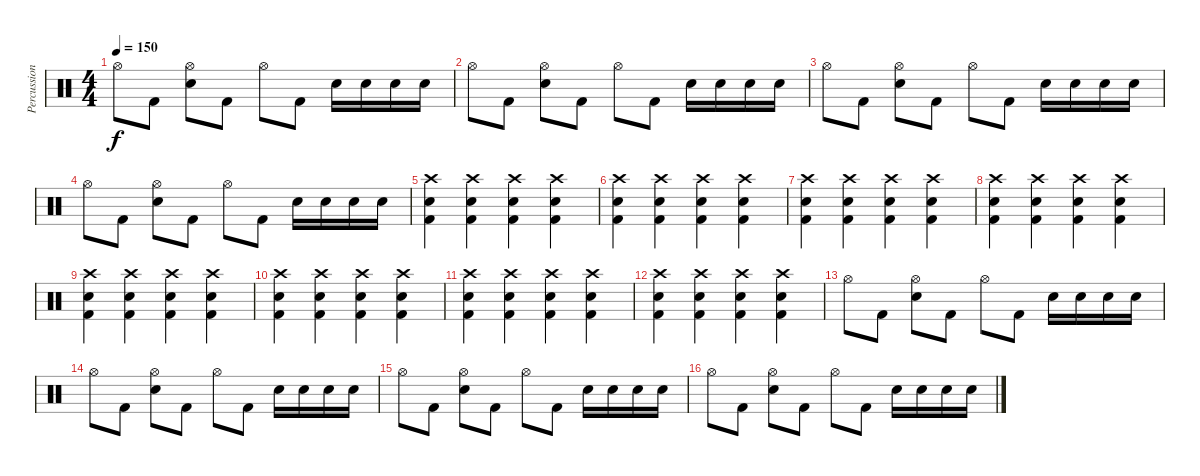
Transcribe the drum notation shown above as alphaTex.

\track ("Percussion" "Percussion") {instrument percussion}
\staff {score}
\articulation defaults
\ts (4 4)
\tempo 150
\clef neutral
\ks c "Hi-Hat (open)".8{dy f} "Kick (hit) 2".8
("Hi-Hat (open)" "Electric Snare (hit)").8 "Kick (hit) 2".8 "Hi-Hat (open)".8 "Kick (hit) 2".8 "Electric Snare (hit)".16 "Electric Snare (hit)".16 "Electric Snare (hit)".16 "Electric Snare (hit)".16 |
"Hi-Hat (open)".8 "Kick (hit) 2".8 ("Hi-Hat (open)" "Electric Snare (hit)").8 "Kick (hit) 2".8 "Hi-Hat (open)".8 "Kick (hit) 2".8 "Electric Snare (hit)".16 "Electric Snare (hit)".16 "Electric Snare (hit)".16 "Electric Snare (hit)".16 |
"Hi-Hat (open)".8 "Kick (hit) 2".8 ("Hi-Hat (open)" "Electric Snare (hit)").8 "Kick (hit) 2".8 "Hi-Hat (open)".8 "Kick (hit) 2".8 "Electric Snare (hit)".16 "Electric Snare (hit)".16 "Electric Snare (hit)".16 "Electric Snare (hit)".16 |
"Hi-Hat (open)".8 "Kick (hit) 2".8 ("Hi-Hat (open)" "Electric Snare (hit)").8 "Kick (hit) 2".8 "Hi-Hat (open)".8 "Kick (hit) 2".8 "Electric Snare (hit)".16 "Electric Snare (hit)".16 "Electric Snare (hit)".16 "Electric Snare (hit)".16 |
("Crash high (hit)" "Electric Snare (hit)" "Kick (hit) 2").4 ("Crash high (hit)" "Electric Snare (hit)" "Kick (hit) 2").4 ("Crash high (hit)" "Electric Snare (hit)" "Kick (hit) 2").4 ("Crash high (hit)" "Electric Snare (hit)" "Kick (hit) 2").4 |
("Crash high (hit)" "Electric Snare (hit)" "Kick (hit) 2").4 ("Crash high (hit)" "Electric Snare (hit)" "Kick (hit) 2").4 ("Crash high (hit)" "Electric Snare (hit)" "Kick (hit) 2").4 ("Crash high (hit)" "Electric Snare (hit)" "Kick (hit) 2").4 |
("Crash high (hit)" "Electric Snare (hit)" "Kick (hit) 2").4 ("Crash high (hit)" "Electric Snare (hit)" "Kick (hit) 2").4 ("Crash high (hit)" "Electric Snare (hit)" "Kick (hit) 2").4 ("Crash high (hit)" "Electric Snare (hit)" "Kick (hit) 2").4 |
("Crash high (hit)" "Electric Snare (hit)" "Kick (hit) 2").4 ("Crash high (hit)" "Electric Snare (hit)" "Kick (hit) 2").4 ("Crash high (hit)" "Electric Snare (hit)" "Kick (hit) 2").4 ("Crash high (hit)" "Electric Snare (hit)" "Kick (hit) 2").4 |
("Crash high (hit)" "Electric Snare (hit)" "Kick (hit) 2").4 ("Crash high (hit)" "Electric Snare (hit)" "Kick (hit) 2").4 ("Crash high (hit)" "Electric Snare (hit)" "Kick (hit) 2").4 ("Crash high (hit)" "Electric Snare (hit)" "Kick (hit) 2").4 |
("Crash high (hit)" "Electric Snare (hit)" "Kick (hit) 2").4 ("Crash high (hit)" "Electric Snare (hit)" "Kick (hit) 2").4 ("Crash high (hit)" "Electric Snare (hit)" "Kick (hit) 2").4 ("Crash high (hit)" "Electric Snare (hit)" "Kick (hit) 2").4 |
("Crash high (hit)" "Electric Snare (hit)" "Kick (hit) 2").4 ("Crash high (hit)" "Electric Snare (hit)" "Kick (hit) 2").4 ("Crash high (hit)" "Electric Snare (hit)" "Kick (hit) 2").4 ("Crash high (hit)" "Electric Snare (hit)" "Kick (hit) 2").4 |
("Crash high (hit)" "Electric Snare (hit)" "Kick (hit) 2").4 ("Crash high (hit)" "Electric Snare (hit)" "Kick (hit) 2").4 ("Crash high (hit)" "Electric Snare (hit)" "Kick (hit) 2").4 ("Crash high (hit)" "Electric Snare (hit)" "Kick (hit) 2").4 |
"Hi-Hat (open)".8 "Kick (hit) 2".8 ("Hi-Hat (open)" "Electric Snare (hit)").8 "Kick (hit) 2".8 "Hi-Hat (open)".8 "Kick (hit) 2".8 "Electric Snare (hit)".16 "Electric Snare (hit)".16 "Electric Snare (hit)".16 "Electric Snare (hit)".16 |
"Hi-Hat (open)".8 "Kick (hit) 2".8 ("Hi-Hat (open)" "Electric Snare (hit)").8 "Kick (hit) 2".8 "Hi-Hat (open)".8 "Kick (hit) 2".8 "Electric Snare (hit)".16 "Electric Snare (hit)".16 "Electric Snare (hit)".16 "Electric Snare (hit)".16 |
"Hi-Hat (open)".8 "Kick (hit) 2".8 ("Hi-Hat (open)" "Electric Snare (hit)").8 "Kick (hit) 2".8 "Hi-Hat (open)".8 "Kick (hit) 2".8 "Electric Snare (hit)".16 "Electric Snare (hit)".16 "Electric Snare (hit)".16 "Electric Snare (hit)".16 |
"Hi-Hat (open)".8 "Kick (hit) 2".8 ("Hi-Hat (open)" "Electric Snare (hit)").8 "Kick (hit) 2".8 "Hi-Hat (open)".8 "Kick (hit) 2".8 "Electric Snare (hit)".16 "Electric Snare (hit)".16 "Electric Snare (hit)".16 "Electric Snare (hit)".16
